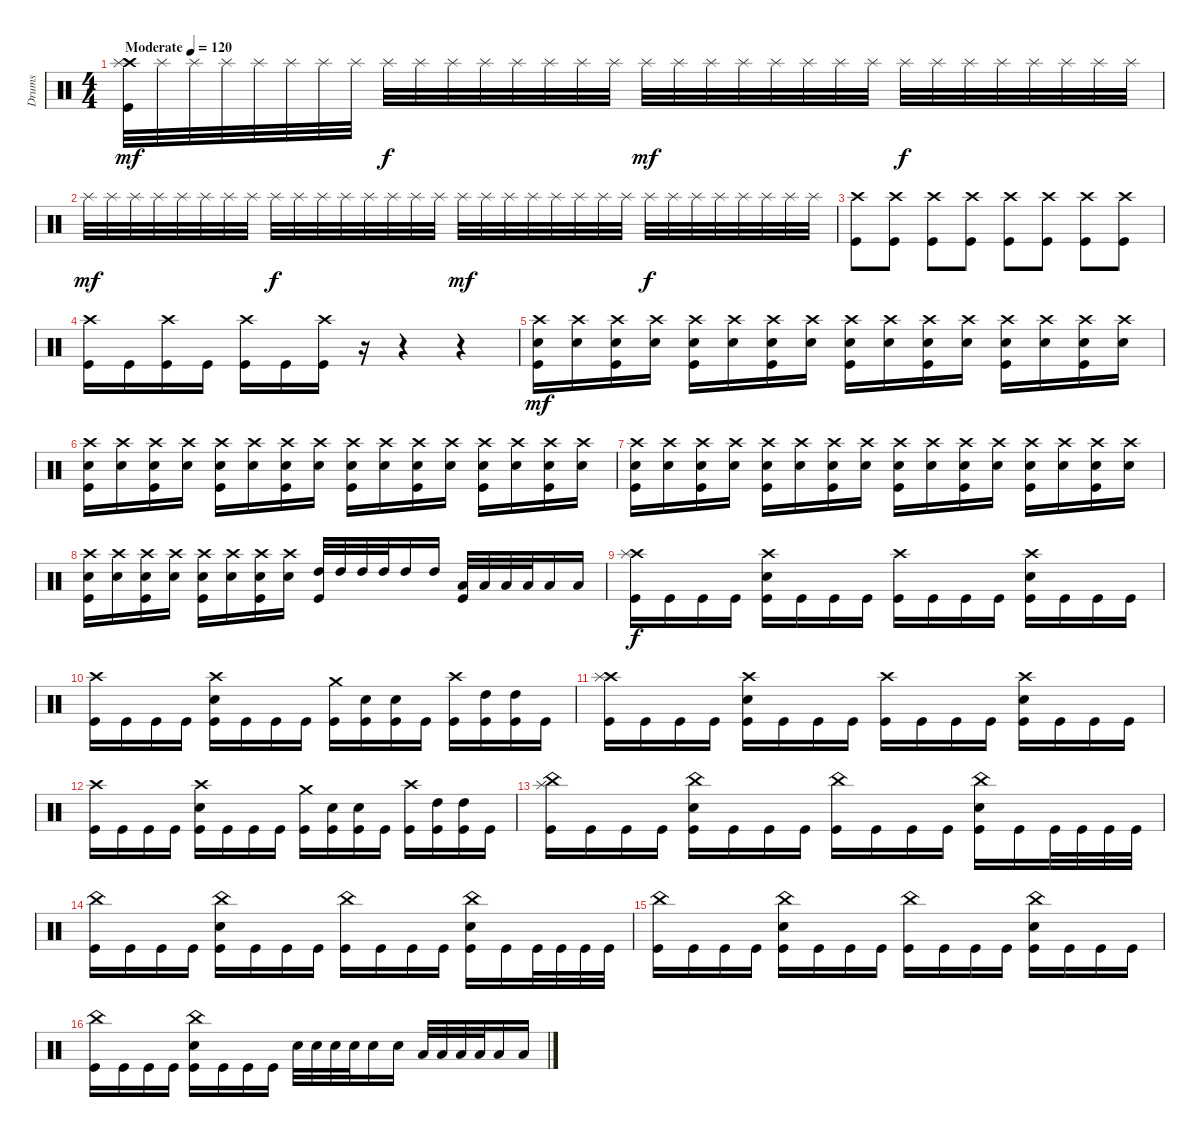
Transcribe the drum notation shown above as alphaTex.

\track ("Drums" "Drums") {instrument percussion}
\staff {score}
\articulation defaults
\ts (4 4)
\tempo (120 "Moderate")
\clef neutral
\ks c
("Crash high (hit)" "Splash (hit)" "Kick (hit)").32{dy mf} "Splash (hit)".32 "Splash (hit)".32 "Splash (hit)".32 "Splash (hit)".32 "Splash (hit)".32 "Splash (hit)".32 "Splash (hit)".32 "Splash (hit)".32{dy f} "Splash (hit)".32 "Splash (hit)".32 "Splash (hit)".32 "Splash (hit)".32 "Splash (hit)".32 "Splash (hit)".32 "Splash (hit)".32 "Splash (hit)".32{dy mf} "Splash (hit)".32 "Splash (hit)".32 "Splash (hit)".32 "Splash (hit)".32 "Splash (hit)".32 "Splash (hit)".32 "Splash (hit)".32 "Splash (hit)".32{dy f} "Splash (hit)".32 "Splash (hit)".32 "Splash (hit)".32 "Splash (hit)".32 "Splash (hit)".32 "Splash (hit)".32 "Splash (hit)".32 |
"Splash (hit)".32{dy mf} "Splash (hit)".32 "Splash (hit)".32 "Splash (hit)".32 "Splash (hit)".32 "Splash (hit)".32 "Splash (hit)".32 "Splash (hit)".32 "Splash (hit)".32{dy f} "Splash (hit)".32 "Splash (hit)".32 "Splash (hit)".32 "Splash (hit)".32 "Splash (hit)".32 "Splash (hit)".32 "Splash (hit)".32 "Splash (hit)".32{dy mf} "Splash (hit)".32 "Splash (hit)".32 "Splash (hit)".32 "Splash (hit)".32 "Splash (hit)".32 "Splash (hit)".32 "Splash (hit)".32 "Splash (hit)".32{dy f} "Splash (hit)".32 "Splash (hit)".32 "Splash (hit)".32 "Splash (hit)".32 "Splash (hit)".32 "Splash (hit)".32 "Splash (hit)".32 |
("Crash high (hit)" "Kick (hit)").8 ("Crash high (hit)" "Kick (hit)").8 ("Crash high (hit)" "Kick (hit)").8 ("Crash high (hit)" "Kick (hit)").8 ("Crash high (hit)" "Kick (hit)").8 ("Crash high (hit)" "Kick (hit)").8 ("Crash high (hit)" "Kick (hit)").8 ("Crash high (hit)" "Kick (hit)").8 |
("Crash high (hit)" "Kick (hit)").16 "Kick (hit)".16 ("Crash high (hit)" "Kick (hit)").16 "Kick (hit)".16 ("Crash high (hit)" "Kick (hit)").16 "Kick (hit)".16 ("Crash high (hit)" "Kick (hit)").16 r.16 r.4 r.4 |
("Crash high (hit)" "Snare (hit) 2" "Kick (hit)").16{dy mf} ("Crash high (hit)" "Snare (hit) 2").16 ("Crash high (hit)" "Snare (hit) 2" "Kick (hit)").16 ("Crash high (hit)" "Snare (hit) 2").16 ("Crash high (hit)" "Snare (hit) 2" "Kick (hit)").16 ("Crash high (hit)" "Snare (hit) 2").16 ("Crash high (hit)" "Snare (hit) 2" "Kick (hit)").16 ("Crash high (hit)" "Snare (hit) 2").16 ("Crash high (hit)" "Snare (hit) 2" "Kick (hit)").16 ("Crash high (hit)" "Snare (hit) 2").16 ("Crash high (hit)" "Snare (hit) 2" "Kick (hit)").16 ("Crash high (hit)" "Snare (hit) 2").16 ("Crash high (hit)" "Snare (hit) 2" "Kick (hit)").16 ("Crash high (hit)" "Snare (hit) 2").16 ("Crash high (hit)" "Snare (hit) 2" "Kick (hit)").16 ("Crash high (hit)" "Snare (hit) 2").16 |
("Crash high (hit)" "Snare (hit) 2" "Kick (hit)").16 ("Crash high (hit)" "Snare (hit) 2").16 ("Crash high (hit)" "Snare (hit) 2" "Kick (hit)").16 ("Crash high (hit)" "Snare (hit) 2").16 ("Crash high (hit)" "Snare (hit) 2" "Kick (hit)").16 ("Crash high (hit)" "Snare (hit) 2").16 ("Crash high (hit)" "Snare (hit) 2" "Kick (hit)").16 ("Crash high (hit)" "Snare (hit) 2").16 ("Crash high (hit)" "Snare (hit) 2" "Kick (hit)").16 ("Crash high (hit)" "Snare (hit) 2").16 ("Crash high (hit)" "Snare (hit) 2" "Kick (hit)").16 ("Crash high (hit)" "Snare (hit) 2").16 ("Crash high (hit)" "Snare (hit) 2" "Kick (hit)").16 ("Crash high (hit)" "Snare (hit) 2").16 ("Crash high (hit)" "Snare (hit) 2" "Kick (hit)").16 ("Crash high (hit)" "Snare (hit) 2").16 |
("Crash high (hit)" "Snare (hit) 2" "Kick (hit)").16 ("Crash high (hit)" "Snare (hit) 2").16 ("Crash high (hit)" "Snare (hit) 2" "Kick (hit)").16 ("Crash high (hit)" "Snare (hit) 2").16 ("Crash high (hit)" "Snare (hit) 2" "Kick (hit)").16 ("Crash high (hit)" "Snare (hit) 2").16 ("Crash high (hit)" "Snare (hit) 2" "Kick (hit)").16 ("Crash high (hit)" "Snare (hit) 2").16 ("Crash high (hit)" "Snare (hit) 2" "Kick (hit)").16 ("Crash high (hit)" "Snare (hit) 2").16 ("Crash high (hit)" "Snare (hit) 2" "Kick (hit)").16 ("Crash high (hit)" "Snare (hit) 2").16 ("Crash high (hit)" "Snare (hit) 2" "Kick (hit)").16 ("Crash high (hit)" "Snare (hit) 2").16 ("Crash high (hit)" "Snare (hit) 2" "Kick (hit)").16 ("Crash high (hit)" "Snare (hit) 2").16 |
("Crash high (hit)" "Snare (hit) 2" "Kick (hit)").16 ("Crash high (hit)" "Snare (hit) 2").16 ("Crash high (hit)" "Snare (hit) 2" "Kick (hit)").16 ("Crash high (hit)" "Snare (hit) 2").16 ("Crash high (hit)" "Snare (hit) 2" "Kick (hit)").16 ("Crash high (hit)" "Snare (hit) 2").16 ("Crash high (hit)" "Snare (hit) 2" "Kick (hit)").16 ("Crash high (hit)" "Snare (hit) 2").16 ("High Tom (hit)" "Kick (hit)").32 "High Tom (hit)".32 "High Tom (hit)".32 "High Tom (hit)".32 "High Tom (hit)".16 "High Tom (hit)".16 ("Low Tom (hit)" "Kick (hit)").32 "Low Tom (hit)".32 "Low Tom (hit)".32 "Low Tom (hit)".32 "Low Tom (hit)".16 "Low Tom (hit)".16 |
("Crash high (hit)" "Splash (hit)" "Kick (hit)").16{dy f} "Kick (hit)".16 "Kick (hit)".16 "Kick (hit)".16 ("Crash high (hit)" "Snare (hit) 2" "Kick (hit)").16 "Kick (hit)".16 "Kick (hit)".16 "Kick (hit)".16 ("Crash high (hit)" "Kick (hit)").16 "Kick (hit)".16 "Kick (hit)".16 "Kick (hit)".16 ("Crash high (hit)" "Snare (hit) 2" "Kick (hit)").16 "Kick (hit)".16 "Kick (hit)".16 "Kick (hit)".16 |
("Crash high (hit)" "Kick (hit)").16 "Kick (hit)".16 "Kick (hit)".16 "Kick (hit)".16 ("Crash high (hit)" "Snare (hit) 2" "Kick (hit)").16 "Kick (hit)".16 "Kick (hit)".16 "Kick (hit)".16 ("Crash medium (hit)" "Kick (hit)").16 ("Snare (hit) 2" "Kick (hit)").16 ("Snare (hit) 2" "Kick (hit)").16 "Kick (hit)".16 ("Crash high (hit)" "Kick (hit)").16 ("High Tom (hit)" "Kick (hit)").16 ("High Tom (hit)" "Kick (hit)").16 "Kick (hit)".16 |
("Crash high (hit)" "Splash (hit)" "Kick (hit)").16 "Kick (hit)".16 "Kick (hit)".16 "Kick (hit)".16 ("Crash high (hit)" "Snare (hit) 2" "Kick (hit)").16 "Kick (hit)".16 "Kick (hit)".16 "Kick (hit)".16 ("Crash high (hit)" "Kick (hit)").16 "Kick (hit)".16 "Kick (hit)".16 "Kick (hit)".16 ("Crash high (hit)" "Snare (hit) 2" "Kick (hit)").16 "Kick (hit)".16 "Kick (hit)".16 "Kick (hit)".16 |
("Crash high (hit)" "Kick (hit)").16 "Kick (hit)".16 "Kick (hit)".16 "Kick (hit)".16 ("Crash high (hit)" "Snare (hit) 2" "Kick (hit)").16 "Kick (hit)".16 "Kick (hit)".16 "Kick (hit)".16 ("Crash medium (hit)" "Kick (hit)").16 ("Snare (hit) 2" "Kick (hit)").16 ("Snare (hit) 2" "Kick (hit)").16 "Kick (hit)".16 ("Crash high (hit)" "Kick (hit)").16 ("High Tom (hit)" "Kick (hit)").16 ("High Tom (hit)" "Kick (hit)").16 "Kick (hit)".16 |
("China (hit)" "Splash (hit)" "Kick (hit)").16 "Kick (hit)".16 "Kick (hit)".16 "Kick (hit)".16 ("China (hit)" "Snare (hit) 2" "Kick (hit)").16 "Kick (hit)".16 "Kick (hit)".16 "Kick (hit)".16 ("China (hit)" "Kick (hit)").16 "Kick (hit)".16 "Kick (hit)".16 "Kick (hit)".16 ("China (hit)" "Snare (hit) 2" "Kick (hit)").16 "Kick (hit)".16 "Kick (hit)".32 "Kick (hit)".32 "Kick (hit)".32 "Kick (hit)".32 |
("China (hit)" "Kick (hit)").16 "Kick (hit)".16 "Kick (hit)".16 "Kick (hit)".16 ("China (hit)" "Snare (hit) 2" "Kick (hit)").16 "Kick (hit)".16 "Kick (hit)".16 "Kick (hit)".16 ("China (hit)" "Kick (hit)").16 "Kick (hit)".16 "Kick (hit)".16 "Kick (hit)".16 ("China (hit)" "Snare (hit) 2" "Kick (hit)").16 "Kick (hit)".16 "Kick (hit)".32 "Kick (hit)".32 "Kick (hit)".32 "Kick (hit)".32 |
("China (hit)" "Kick (hit)").16 "Kick (hit)".16 "Kick (hit)".16 "Kick (hit)".16 ("China (hit)" "Snare (hit) 2" "Kick (hit)").16 "Kick (hit)".16 "Kick (hit)".16 "Kick (hit)".16 ("China (hit)" "Kick (hit)").16 "Kick (hit)".16 "Kick (hit)".16 "Kick (hit)".16 ("China (hit)" "Snare (hit) 2" "Kick (hit)").16 "Kick (hit)".16 "Kick (hit)".16 "Kick (hit)".16 |
("China (hit)" "Kick (hit)").16 "Kick (hit)".16 "Kick (hit)".16 "Kick (hit)".16 ("China (hit)" "Snare (hit) 2" "Kick (hit)").16 "Kick (hit)".16 "Kick (hit)".16 "Kick (hit)".16 "Snare (hit) 2".32 "Snare (hit) 2".32 "Snare (hit) 2".32 "Snare (hit) 2".32 "Snare (hit) 2".16 "Snare (hit) 2".16 "Low Tom (hit)".32 "Low Tom (hit)".32 "Low Tom (hit)".32 "Low Tom (hit)".32 "Low Tom (hit)".16 "Low Tom (hit)".16
